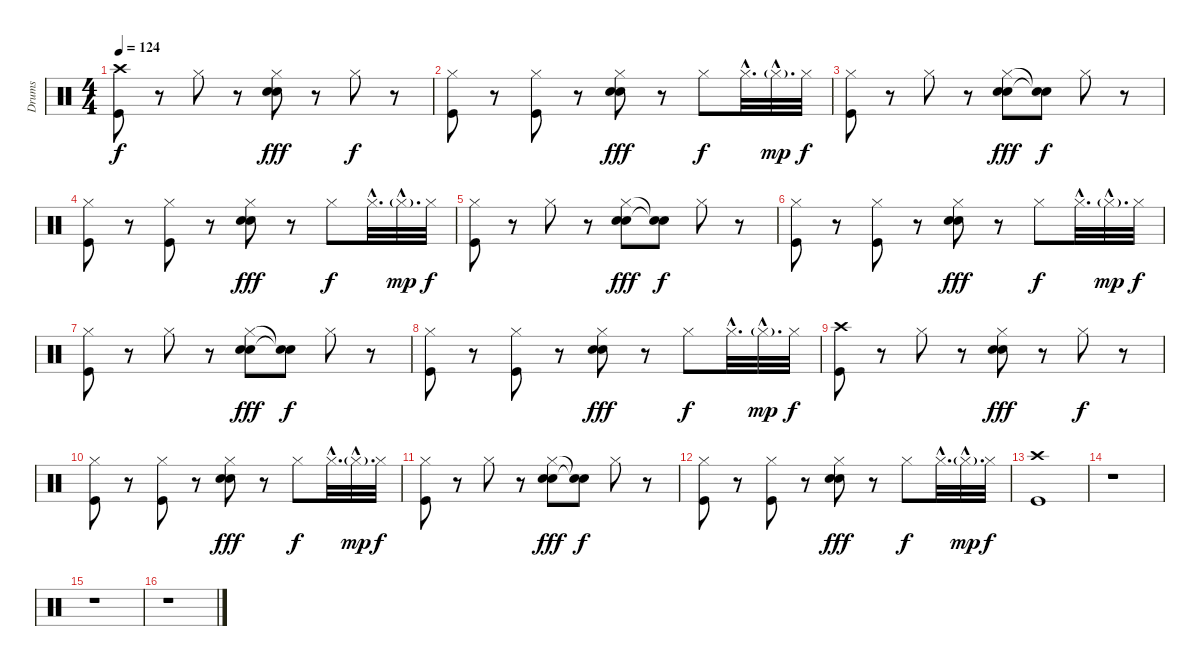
\track ("Drums" "Drums") {instrument percussion}
\staff {score}
\articulation defaults
\ts (4 4)
\tempo 124
\clef neutral
\ks c
("Crash high (hit)" "Kick (hit)").8{dy f} r.8 "Hi-Hat (closed)".8 r.8 ("Hi-Hat (closed)" "Snare (hit) 2" "Snare (hit) 2").8{dy fff} r.8 "Hi-Hat (closed)".8{dy f} r.8 |
("Hi-Hat (closed)" "Kick (hit)").8 r.8 ("Hi-Hat (closed)" "Kick (hit)").8 r.8 ("Hi-Hat (closed)" "Snare (hit) 2" "Snare (hit) 2").8{dy fff} r.8 "Hi-Hat (closed)".8{dy f} "Hi-Hat (closed)"{hac}.32{d} "Hi-Hat (closed)"{g hac}.32{d dy mp} "Hi-Hat (closed)".32{dy f} |
("Hi-Hat (closed)" "Kick (hit)").8 r.8 "Hi-Hat (closed)".8 r.8 ("Hi-Hat (closed)" "Snare (hit) 2" "Snare (hit) 2").8{dy fff} ("Snare (hit)"{t} "Snare (hit)"{t}).8{dy f} "Hi-Hat (closed)".8 r.8 |
("Hi-Hat (closed)" "Kick (hit)").8 r.8 ("Hi-Hat (closed)" "Kick (hit)").8 r.8 ("Hi-Hat (closed)" "Snare (hit) 2" "Snare (hit) 2").8{dy fff} r.8 "Hi-Hat (closed)".8{dy f} "Hi-Hat (closed)"{hac}.32{d} "Hi-Hat (closed)"{g hac}.32{d dy mp} "Hi-Hat (closed)".32{dy f} |
("Hi-Hat (closed)" "Kick (hit)").8 r.8 "Hi-Hat (closed)".8 r.8 ("Hi-Hat (closed)" "Snare (hit) 2" "Snare (hit) 2").8{dy fff} ("Snare (hit)"{t} "Snare (hit)"{t}).8{dy f} "Hi-Hat (closed)".8 r.8 |
("Hi-Hat (closed)" "Kick (hit)").8 r.8 ("Hi-Hat (closed)" "Kick (hit)").8 r.8 ("Hi-Hat (closed)" "Snare (hit) 2" "Snare (hit) 2").8{dy fff} r.8 "Hi-Hat (closed)".8{dy f} "Hi-Hat (closed)"{hac}.32{d} "Hi-Hat (closed)"{g hac}.32{d dy mp} "Hi-Hat (closed)".32{dy f} |
("Hi-Hat (closed)" "Kick (hit)").8 r.8 "Hi-Hat (closed)".8 r.8 ("Hi-Hat (closed)" "Snare (hit) 2" "Snare (hit) 2").8{dy fff} ("Snare (hit)"{t} "Snare (hit)"{t}).8{dy f} "Hi-Hat (closed)".8 r.8 |
("Hi-Hat (closed)" "Kick (hit)").8 r.8 ("Hi-Hat (closed)" "Kick (hit)").8 r.8 ("Hi-Hat (closed)" "Snare (hit) 2" "Snare (hit) 2").8{dy fff} r.8 "Hi-Hat (closed)".8{dy f} "Hi-Hat (closed)"{hac}.32{d} "Hi-Hat (closed)"{g hac}.32{d dy mp} "Hi-Hat (closed)".32{dy f} |
("Crash high (hit)" "Kick (hit)").8 r.8 "Hi-Hat (closed)".8 r.8 ("Hi-Hat (closed)" "Snare (hit) 2" "Snare (hit) 2").8{dy fff} r.8 "Hi-Hat (closed)".8{dy f} r.8 |
("Hi-Hat (closed)" "Kick (hit)").8 r.8 ("Hi-Hat (closed)" "Kick (hit)").8 r.8 ("Hi-Hat (closed)" "Snare (hit) 2" "Snare (hit) 2").8{dy fff} r.8 "Hi-Hat (closed)".8{dy f} "Hi-Hat (closed)"{hac}.32{d} "Hi-Hat (closed)"{g hac}.32{d dy mp} "Hi-Hat (closed)".32{dy f} |
("Hi-Hat (closed)" "Kick (hit)").8 r.8 "Hi-Hat (closed)".8 r.8 ("Hi-Hat (closed)" "Snare (hit) 2" "Snare (hit) 2").8{dy fff} ("Snare (hit)"{t} "Snare (hit)"{t}).8{dy f} "Hi-Hat (closed)".8 r.8 |
("Hi-Hat (closed)" "Kick (hit)").8 r.8 ("Hi-Hat (closed)" "Kick (hit)").8 r.8 ("Hi-Hat (closed)" "Snare (hit) 2" "Snare (hit) 2").8{dy fff} r.8 "Hi-Hat (closed)".8{dy f} "Hi-Hat (closed)"{hac}.32{d} "Hi-Hat (closed)"{g hac}.32{d dy mp} "Hi-Hat (closed)".32{dy f} |
("Crash high (hit)" "Kick (hit)").1 |
r.1 |
r.1 |
r.1
